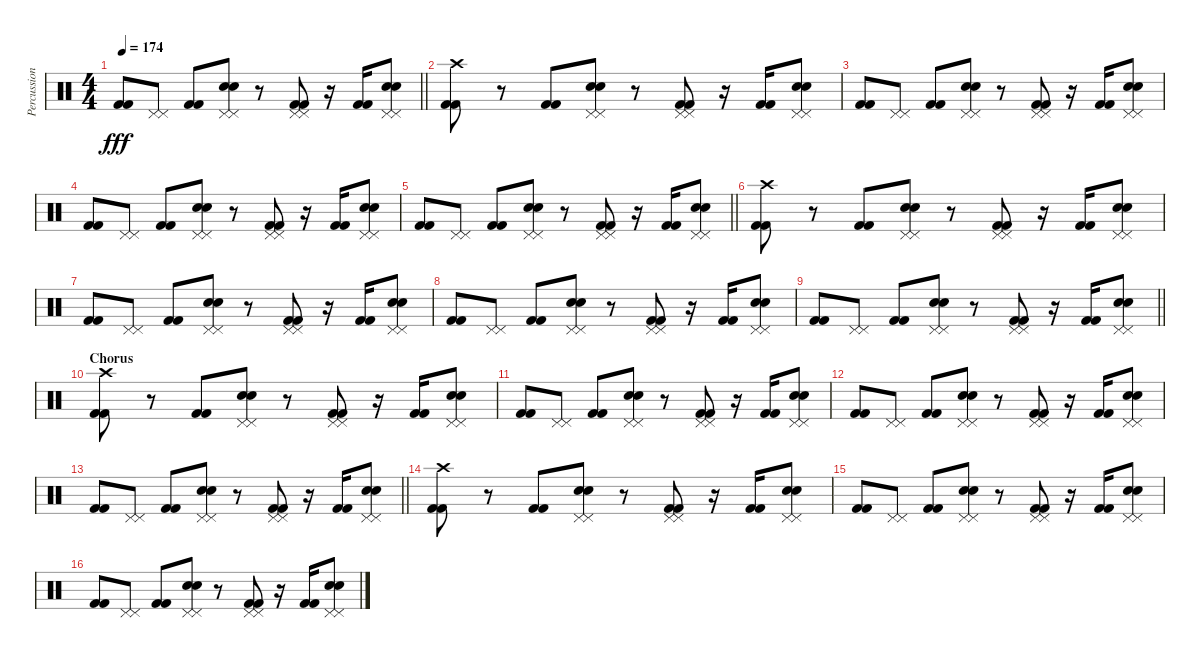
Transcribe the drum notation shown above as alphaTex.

\track ("Percussion" "Percussion") {instrument percussion}
\staff {score}
\articulation defaults
\ts (4 4)
\tempo 174
\clef neutral
\barLineRight lightlight
\ks c
("Kick (hit) 2" "Kick (hit) 2").8{dy fff} ("Pedal Hi-Hat (hit)" "Pedal Hi-Hat (hit)").8 ("Kick (hit) 2" "Kick (hit) 2").8 ("Pedal Hi-Hat (hit)" "Pedal Hi-Hat (hit)" "Electric Snare (hit)" "Electric Snare (hit)").8 r.8 ("Pedal Hi-Hat (hit)" "Pedal Hi-Hat (hit)" "Kick (hit) 2" "Kick (hit) 2").8 r.16 ("Kick (hit) 2" "Kick (hit) 2").16 ("Pedal Hi-Hat (hit)" "Pedal Hi-Hat (hit)" "Electric Snare (hit)" "Electric Snare (hit)").8 |
("Crash high (hit)" "Kick (hit) 2" "Kick (hit) 2").8 r.8 ("Kick (hit) 2" "Kick (hit) 2").8 ("Pedal Hi-Hat (hit)" "Pedal Hi-Hat (hit)" "Electric Snare (hit)" "Electric Snare (hit)").8 r.8 ("Pedal Hi-Hat (hit)" "Pedal Hi-Hat (hit)" "Kick (hit) 2" "Kick (hit) 2").8 r.16 ("Kick (hit) 2" "Kick (hit) 2").16 ("Pedal Hi-Hat (hit)" "Pedal Hi-Hat (hit)" "Electric Snare (hit)" "Electric Snare (hit)").8 |
("Kick (hit) 2" "Kick (hit) 2").8 ("Pedal Hi-Hat (hit)" "Pedal Hi-Hat (hit)").8 ("Kick (hit) 2" "Kick (hit) 2").8 ("Pedal Hi-Hat (hit)" "Pedal Hi-Hat (hit)" "Electric Snare (hit)" "Electric Snare (hit)").8 r.8 ("Pedal Hi-Hat (hit)" "Pedal Hi-Hat (hit)" "Kick (hit) 2" "Kick (hit) 2").8 r.16 ("Kick (hit) 2" "Kick (hit) 2").16 ("Pedal Hi-Hat (hit)" "Pedal Hi-Hat (hit)" "Electric Snare (hit)" "Electric Snare (hit)").8 |
("Kick (hit) 2" "Kick (hit) 2").8 ("Pedal Hi-Hat (hit)" "Pedal Hi-Hat (hit)").8 ("Kick (hit) 2" "Kick (hit) 2").8 ("Pedal Hi-Hat (hit)" "Pedal Hi-Hat (hit)" "Electric Snare (hit)" "Electric Snare (hit)").8 r.8 ("Pedal Hi-Hat (hit)" "Pedal Hi-Hat (hit)" "Kick (hit) 2" "Kick (hit) 2").8 r.16 ("Kick (hit) 2" "Kick (hit) 2").16 ("Pedal Hi-Hat (hit)" "Pedal Hi-Hat (hit)" "Electric Snare (hit)" "Electric Snare (hit)").8 |
\barLineRight lightlight
("Kick (hit) 2" "Kick (hit) 2").8 ("Pedal Hi-Hat (hit)" "Pedal Hi-Hat (hit)").8 ("Kick (hit) 2" "Kick (hit) 2").8 ("Pedal Hi-Hat (hit)" "Pedal Hi-Hat (hit)" "Electric Snare (hit)" "Electric Snare (hit)").8 r.8 ("Pedal Hi-Hat (hit)" "Pedal Hi-Hat (hit)" "Kick (hit) 2" "Kick (hit) 2").8 r.16 ("Kick (hit) 2" "Kick (hit) 2").16 ("Pedal Hi-Hat (hit)" "Pedal Hi-Hat (hit)" "Electric Snare (hit)" "Electric Snare (hit)").8 |
\section ("" "")
("Crash high (hit)" "Kick (hit) 2" "Kick (hit) 2").8 r.8 ("Kick (hit) 2" "Kick (hit) 2").8 ("Pedal Hi-Hat (hit)" "Pedal Hi-Hat (hit)" "Electric Snare (hit)" "Electric Snare (hit)").8 r.8 ("Pedal Hi-Hat (hit)" "Pedal Hi-Hat (hit)" "Kick (hit) 2" "Kick (hit) 2").8 r.16 ("Kick (hit) 2" "Kick (hit) 2").16 ("Pedal Hi-Hat (hit)" "Pedal Hi-Hat (hit)" "Electric Snare (hit)" "Electric Snare (hit)").8 |
("Kick (hit) 2" "Kick (hit) 2").8 ("Pedal Hi-Hat (hit)" "Pedal Hi-Hat (hit)").8 ("Kick (hit) 2" "Kick (hit) 2").8 ("Pedal Hi-Hat (hit)" "Pedal Hi-Hat (hit)" "Electric Snare (hit)" "Electric Snare (hit)").8 r.8 ("Pedal Hi-Hat (hit)" "Pedal Hi-Hat (hit)" "Kick (hit) 2" "Kick (hit) 2").8 r.16 ("Kick (hit) 2" "Kick (hit) 2").16 ("Pedal Hi-Hat (hit)" "Pedal Hi-Hat (hit)" "Electric Snare (hit)" "Electric Snare (hit)").8 |
("Kick (hit) 2" "Kick (hit) 2").8 ("Pedal Hi-Hat (hit)" "Pedal Hi-Hat (hit)").8 ("Kick (hit) 2" "Kick (hit) 2").8 ("Pedal Hi-Hat (hit)" "Pedal Hi-Hat (hit)" "Electric Snare (hit)" "Electric Snare (hit)").8 r.8 ("Pedal Hi-Hat (hit)" "Pedal Hi-Hat (hit)" "Kick (hit) 2" "Kick (hit) 2").8 r.16 ("Kick (hit) 2" "Kick (hit) 2").16 ("Pedal Hi-Hat (hit)" "Pedal Hi-Hat (hit)" "Electric Snare (hit)" "Electric Snare (hit)").8 |
\barLineRight lightlight
("Kick (hit) 2" "Kick (hit) 2").8 ("Pedal Hi-Hat (hit)" "Pedal Hi-Hat (hit)").8 ("Kick (hit) 2" "Kick (hit) 2").8 ("Pedal Hi-Hat (hit)" "Pedal Hi-Hat (hit)" "Electric Snare (hit)" "Electric Snare (hit)").8 r.8 ("Pedal Hi-Hat (hit)" "Pedal Hi-Hat (hit)" "Kick (hit) 2" "Kick (hit) 2").8 r.16 ("Kick (hit) 2" "Kick (hit) 2").16 ("Pedal Hi-Hat (hit)" "Pedal Hi-Hat (hit)" "Electric Snare (hit)" "Electric Snare (hit)").8 |
\section ("" "Chorus")
("Crash high (hit)" "Kick (hit) 2" "Kick (hit) 2").8 r.8 ("Kick (hit) 2" "Kick (hit) 2").8 ("Pedal Hi-Hat (hit)" "Pedal Hi-Hat (hit)" "Electric Snare (hit)" "Electric Snare (hit)").8 r.8 ("Pedal Hi-Hat (hit)" "Pedal Hi-Hat (hit)" "Kick (hit) 2" "Kick (hit) 2").8 r.16 ("Kick (hit) 2" "Kick (hit) 2").16 ("Pedal Hi-Hat (hit)" "Pedal Hi-Hat (hit)" "Electric Snare (hit)" "Electric Snare (hit)").8 |
("Kick (hit) 2" "Kick (hit) 2").8 ("Pedal Hi-Hat (hit)" "Pedal Hi-Hat (hit)").8 ("Kick (hit) 2" "Kick (hit) 2").8 ("Pedal Hi-Hat (hit)" "Pedal Hi-Hat (hit)" "Electric Snare (hit)" "Electric Snare (hit)").8 r.8 ("Pedal Hi-Hat (hit)" "Pedal Hi-Hat (hit)" "Kick (hit) 2" "Kick (hit) 2").8 r.16 ("Kick (hit) 2" "Kick (hit) 2").16 ("Pedal Hi-Hat (hit)" "Pedal Hi-Hat (hit)" "Electric Snare (hit)" "Electric Snare (hit)").8 |
("Kick (hit) 2" "Kick (hit) 2").8 ("Pedal Hi-Hat (hit)" "Pedal Hi-Hat (hit)").8 ("Kick (hit) 2" "Kick (hit) 2").8 ("Pedal Hi-Hat (hit)" "Pedal Hi-Hat (hit)" "Electric Snare (hit)" "Electric Snare (hit)").8 r.8 ("Pedal Hi-Hat (hit)" "Pedal Hi-Hat (hit)" "Kick (hit) 2" "Kick (hit) 2").8 r.16 ("Kick (hit) 2" "Kick (hit) 2").16 ("Pedal Hi-Hat (hit)" "Pedal Hi-Hat (hit)" "Electric Snare (hit)" "Electric Snare (hit)").8 |
\barLineRight lightlight
("Kick (hit) 2" "Kick (hit) 2").8 ("Pedal Hi-Hat (hit)" "Pedal Hi-Hat (hit)").8 ("Kick (hit) 2" "Kick (hit) 2").8 ("Pedal Hi-Hat (hit)" "Pedal Hi-Hat (hit)" "Electric Snare (hit)" "Electric Snare (hit)").8 r.8 ("Pedal Hi-Hat (hit)" "Pedal Hi-Hat (hit)" "Kick (hit) 2" "Kick (hit) 2").8 r.16 ("Kick (hit) 2" "Kick (hit) 2").16 ("Pedal Hi-Hat (hit)" "Pedal Hi-Hat (hit)" "Electric Snare (hit)" "Electric Snare (hit)").8 |
("Crash high (hit)" "Kick (hit) 2" "Kick (hit) 2").8 r.8 ("Kick (hit) 2" "Kick (hit) 2").8 ("Pedal Hi-Hat (hit)" "Pedal Hi-Hat (hit)" "Electric Snare (hit)" "Electric Snare (hit)").8 r.8 ("Pedal Hi-Hat (hit)" "Pedal Hi-Hat (hit)" "Kick (hit) 2" "Kick (hit) 2").8 r.16 ("Kick (hit) 2" "Kick (hit) 2").16 ("Pedal Hi-Hat (hit)" "Pedal Hi-Hat (hit)" "Electric Snare (hit)" "Electric Snare (hit)").8 |
("Kick (hit) 2" "Kick (hit) 2").8 ("Pedal Hi-Hat (hit)" "Pedal Hi-Hat (hit)").8 ("Kick (hit) 2" "Kick (hit) 2").8 ("Pedal Hi-Hat (hit)" "Pedal Hi-Hat (hit)" "Electric Snare (hit)" "Electric Snare (hit)").8 r.8 ("Pedal Hi-Hat (hit)" "Pedal Hi-Hat (hit)" "Kick (hit) 2" "Kick (hit) 2").8 r.16 ("Kick (hit) 2" "Kick (hit) 2").16 ("Pedal Hi-Hat (hit)" "Pedal Hi-Hat (hit)" "Electric Snare (hit)" "Electric Snare (hit)").8 |
("Kick (hit) 2" "Kick (hit) 2").8 ("Pedal Hi-Hat (hit)" "Pedal Hi-Hat (hit)").8 ("Kick (hit) 2" "Kick (hit) 2").8 ("Pedal Hi-Hat (hit)" "Pedal Hi-Hat (hit)" "Electric Snare (hit)" "Electric Snare (hit)").8 r.8 ("Pedal Hi-Hat (hit)" "Pedal Hi-Hat (hit)" "Kick (hit) 2" "Kick (hit) 2").8 r.16 ("Kick (hit) 2" "Kick (hit) 2").16 ("Pedal Hi-Hat (hit)" "Pedal Hi-Hat (hit)" "Electric Snare (hit)" "Electric Snare (hit)").8
